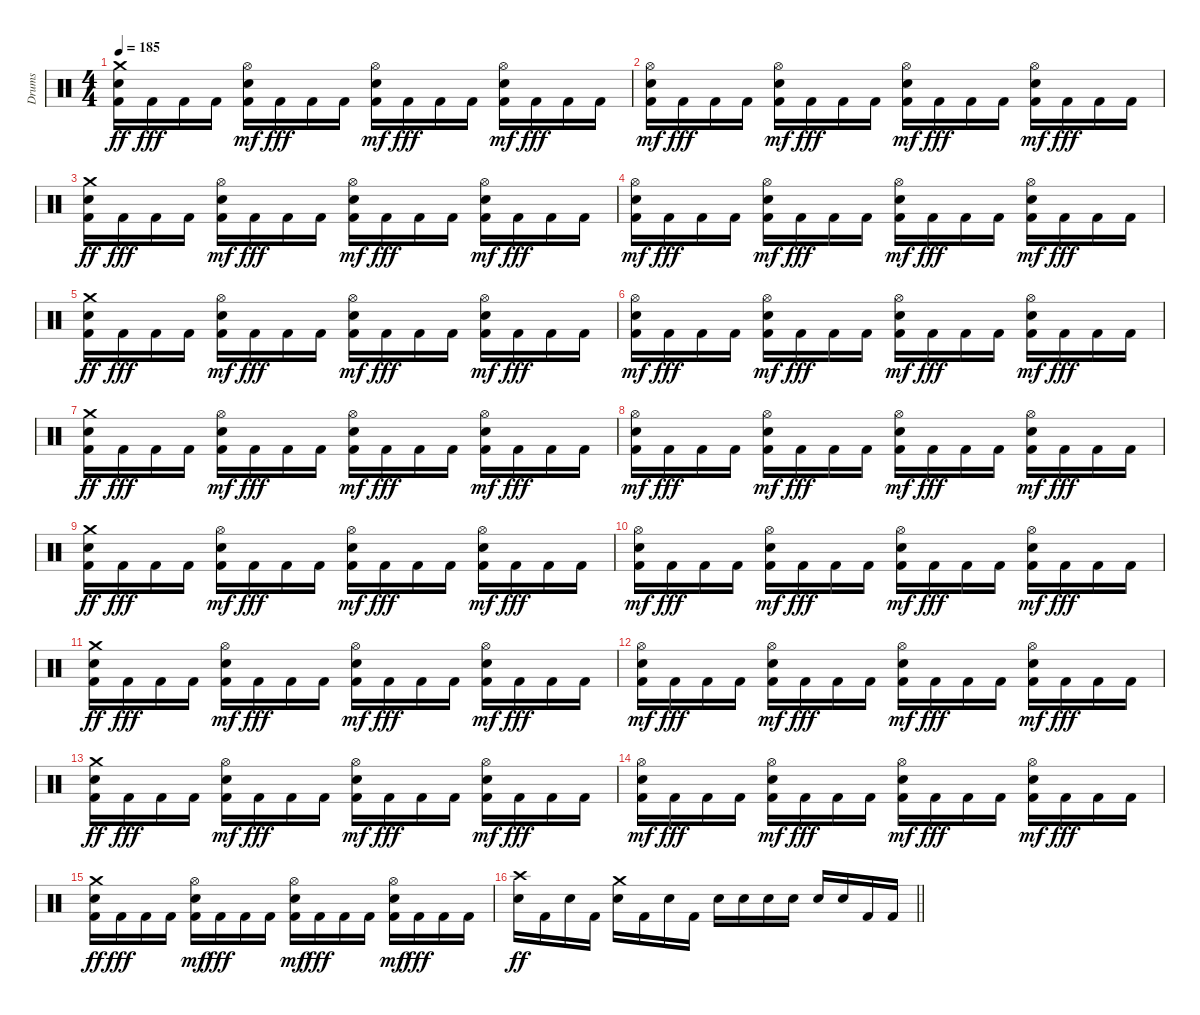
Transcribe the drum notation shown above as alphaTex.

\track ("Drums" "Drums") {instrument percussion}
\staff {score}
\articulation defaults
\ts (4 4)
\tempo 185
\clef neutral
\ks c
("Kick (hit) 2" "Snare (hit) 2" "Crash medium (hit)").16{dy ff} "Kick (hit) 2".16{dy fff} "Kick (hit) 2".16 "Kick (hit) 2".16 ("Kick (hit) 2" "Snare (hit) 2" "Hi-Hat (open)").16{dy mf} "Kick (hit) 2".16{dy fff} "Kick (hit) 2".16 "Kick (hit) 2".16 ("Kick (hit) 2" "Snare (hit) 2" "Hi-Hat (open)").16{dy mf} "Kick (hit) 2".16{dy fff} "Kick (hit) 2".16 "Kick (hit) 2".16 ("Kick (hit) 2" "Snare (hit) 2" "Hi-Hat (open)").16{dy mf} "Kick (hit) 2".16{dy fff} "Kick (hit) 2".16 "Kick (hit) 2".16 |
("Kick (hit) 2" "Snare (hit) 2" "Hi-Hat (open)").16{dy mf} "Kick (hit) 2".16{dy fff} "Kick (hit) 2".16 "Kick (hit) 2".16 ("Kick (hit) 2" "Snare (hit) 2" "Hi-Hat (open)").16{dy mf} "Kick (hit) 2".16{dy fff} "Kick (hit) 2".16 "Kick (hit) 2".16 ("Kick (hit) 2" "Snare (hit) 2" "Hi-Hat (open)").16{dy mf} "Kick (hit) 2".16{dy fff} "Kick (hit) 2".16 "Kick (hit) 2".16 ("Kick (hit) 2" "Snare (hit) 2" "Hi-Hat (open)").16{dy mf} "Kick (hit) 2".16{dy fff} "Kick (hit) 2".16 "Kick (hit) 2".16 |
("Kick (hit) 2" "Snare (hit) 2" "Crash medium (hit)").16{dy ff} "Kick (hit) 2".16{dy fff} "Kick (hit) 2".16 "Kick (hit) 2".16 ("Kick (hit) 2" "Snare (hit) 2" "Hi-Hat (open)").16{dy mf} "Kick (hit) 2".16{dy fff} "Kick (hit) 2".16 "Kick (hit) 2".16 ("Kick (hit) 2" "Snare (hit) 2" "Hi-Hat (open)").16{dy mf} "Kick (hit) 2".16{dy fff} "Kick (hit) 2".16 "Kick (hit) 2".16 ("Kick (hit) 2" "Snare (hit) 2" "Hi-Hat (open)").16{dy mf} "Kick (hit) 2".16{dy fff} "Kick (hit) 2".16 "Kick (hit) 2".16 |
("Kick (hit) 2" "Snare (hit) 2" "Hi-Hat (open)").16{dy mf} "Kick (hit) 2".16{dy fff} "Kick (hit) 2".16 "Kick (hit) 2".16 ("Kick (hit) 2" "Snare (hit) 2" "Hi-Hat (open)").16{dy mf} "Kick (hit) 2".16{dy fff} "Kick (hit) 2".16 "Kick (hit) 2".16 ("Kick (hit) 2" "Snare (hit) 2" "Hi-Hat (open)").16{dy mf} "Kick (hit) 2".16{dy fff} "Kick (hit) 2".16 "Kick (hit) 2".16 ("Kick (hit) 2" "Snare (hit) 2" "Hi-Hat (open)").16{dy mf} "Kick (hit) 2".16{dy fff} "Kick (hit) 2".16 "Kick (hit) 2".16 |
("Kick (hit) 2" "Snare (hit) 2" "Crash medium (hit)").16{dy ff} "Kick (hit) 2".16{dy fff} "Kick (hit) 2".16 "Kick (hit) 2".16 ("Kick (hit) 2" "Snare (hit) 2" "Hi-Hat (open)").16{dy mf} "Kick (hit) 2".16{dy fff} "Kick (hit) 2".16 "Kick (hit) 2".16 ("Kick (hit) 2" "Snare (hit) 2" "Hi-Hat (open)").16{dy mf} "Kick (hit) 2".16{dy fff} "Kick (hit) 2".16 "Kick (hit) 2".16 ("Kick (hit) 2" "Snare (hit) 2" "Hi-Hat (open)").16{dy mf} "Kick (hit) 2".16{dy fff} "Kick (hit) 2".16 "Kick (hit) 2".16 |
("Kick (hit) 2" "Snare (hit) 2" "Hi-Hat (open)").16{dy mf} "Kick (hit) 2".16{dy fff} "Kick (hit) 2".16 "Kick (hit) 2".16 ("Kick (hit) 2" "Snare (hit) 2" "Hi-Hat (open)").16{dy mf} "Kick (hit) 2".16{dy fff} "Kick (hit) 2".16 "Kick (hit) 2".16 ("Kick (hit) 2" "Snare (hit) 2" "Hi-Hat (open)").16{dy mf} "Kick (hit) 2".16{dy fff} "Kick (hit) 2".16 "Kick (hit) 2".16 ("Kick (hit) 2" "Snare (hit) 2" "Hi-Hat (open)").16{dy mf} "Kick (hit) 2".16{dy fff} "Kick (hit) 2".16 "Kick (hit) 2".16 |
("Kick (hit) 2" "Snare (hit) 2" "Crash medium (hit)").16{dy ff} "Kick (hit) 2".16{dy fff} "Kick (hit) 2".16 "Kick (hit) 2".16 ("Kick (hit) 2" "Snare (hit) 2" "Hi-Hat (open)").16{dy mf} "Kick (hit) 2".16{dy fff} "Kick (hit) 2".16 "Kick (hit) 2".16 ("Kick (hit) 2" "Snare (hit) 2" "Hi-Hat (open)").16{dy mf} "Kick (hit) 2".16{dy fff} "Kick (hit) 2".16 "Kick (hit) 2".16 ("Kick (hit) 2" "Snare (hit) 2" "Hi-Hat (open)").16{dy mf} "Kick (hit) 2".16{dy fff} "Kick (hit) 2".16 "Kick (hit) 2".16 |
("Kick (hit) 2" "Snare (hit) 2" "Hi-Hat (open)").16{dy mf} "Kick (hit) 2".16{dy fff} "Kick (hit) 2".16 "Kick (hit) 2".16 ("Kick (hit) 2" "Snare (hit) 2" "Hi-Hat (open)").16{dy mf} "Kick (hit) 2".16{dy fff} "Kick (hit) 2".16 "Kick (hit) 2".16 ("Kick (hit) 2" "Snare (hit) 2" "Hi-Hat (open)").16{dy mf} "Kick (hit) 2".16{dy fff} "Kick (hit) 2".16 "Kick (hit) 2".16 ("Kick (hit) 2" "Snare (hit) 2" "Hi-Hat (open)").16{dy mf} "Kick (hit) 2".16{dy fff} "Kick (hit) 2".16 "Kick (hit) 2".16 |
("Kick (hit) 2" "Snare (hit) 2" "Crash medium (hit)").16{dy ff} "Kick (hit) 2".16{dy fff} "Kick (hit) 2".16 "Kick (hit) 2".16 ("Kick (hit) 2" "Snare (hit) 2" "Hi-Hat (open)").16{dy mf} "Kick (hit) 2".16{dy fff} "Kick (hit) 2".16 "Kick (hit) 2".16 ("Kick (hit) 2" "Snare (hit) 2" "Hi-Hat (open)").16{dy mf} "Kick (hit) 2".16{dy fff} "Kick (hit) 2".16 "Kick (hit) 2".16 ("Kick (hit) 2" "Snare (hit) 2" "Hi-Hat (open)").16{dy mf} "Kick (hit) 2".16{dy fff} "Kick (hit) 2".16 "Kick (hit) 2".16 |
("Kick (hit) 2" "Snare (hit) 2" "Hi-Hat (open)").16{dy mf} "Kick (hit) 2".16{dy fff} "Kick (hit) 2".16 "Kick (hit) 2".16 ("Kick (hit) 2" "Snare (hit) 2" "Hi-Hat (open)").16{dy mf} "Kick (hit) 2".16{dy fff} "Kick (hit) 2".16 "Kick (hit) 2".16 ("Kick (hit) 2" "Snare (hit) 2" "Hi-Hat (open)").16{dy mf} "Kick (hit) 2".16{dy fff} "Kick (hit) 2".16 "Kick (hit) 2".16 ("Kick (hit) 2" "Snare (hit) 2" "Hi-Hat (open)").16{dy mf} "Kick (hit) 2".16{dy fff} "Kick (hit) 2".16 "Kick (hit) 2".16 |
("Kick (hit) 2" "Snare (hit) 2" "Crash medium (hit)").16{dy ff} "Kick (hit) 2".16{dy fff} "Kick (hit) 2".16 "Kick (hit) 2".16 ("Kick (hit) 2" "Snare (hit) 2" "Hi-Hat (open)").16{dy mf} "Kick (hit) 2".16{dy fff} "Kick (hit) 2".16 "Kick (hit) 2".16 ("Kick (hit) 2" "Snare (hit) 2" "Hi-Hat (open)").16{dy mf} "Kick (hit) 2".16{dy fff} "Kick (hit) 2".16 "Kick (hit) 2".16 ("Kick (hit) 2" "Snare (hit) 2" "Hi-Hat (open)").16{dy mf} "Kick (hit) 2".16{dy fff} "Kick (hit) 2".16 "Kick (hit) 2".16 |
("Kick (hit) 2" "Snare (hit) 2" "Hi-Hat (open)").16{dy mf} "Kick (hit) 2".16{dy fff} "Kick (hit) 2".16 "Kick (hit) 2".16 ("Kick (hit) 2" "Snare (hit) 2" "Hi-Hat (open)").16{dy mf} "Kick (hit) 2".16{dy fff} "Kick (hit) 2".16 "Kick (hit) 2".16 ("Kick (hit) 2" "Snare (hit) 2" "Hi-Hat (open)").16{dy mf} "Kick (hit) 2".16{dy fff} "Kick (hit) 2".16 "Kick (hit) 2".16 ("Kick (hit) 2" "Snare (hit) 2" "Hi-Hat (open)").16{dy mf} "Kick (hit) 2".16{dy fff} "Kick (hit) 2".16 "Kick (hit) 2".16 |
("Kick (hit) 2" "Snare (hit) 2" "Crash medium (hit)").16{dy ff} "Kick (hit) 2".16{dy fff} "Kick (hit) 2".16 "Kick (hit) 2".16 ("Kick (hit) 2" "Snare (hit) 2" "Hi-Hat (open)").16{dy mf} "Kick (hit) 2".16{dy fff} "Kick (hit) 2".16 "Kick (hit) 2".16 ("Kick (hit) 2" "Snare (hit) 2" "Hi-Hat (open)").16{dy mf} "Kick (hit) 2".16{dy fff} "Kick (hit) 2".16 "Kick (hit) 2".16 ("Kick (hit) 2" "Snare (hit) 2" "Hi-Hat (open)").16{dy mf} "Kick (hit) 2".16{dy fff} "Kick (hit) 2".16 "Kick (hit) 2".16 |
("Kick (hit) 2" "Snare (hit) 2" "Hi-Hat (open)").16{dy mf} "Kick (hit) 2".16{dy fff} "Kick (hit) 2".16 "Kick (hit) 2".16 ("Kick (hit) 2" "Snare (hit) 2" "Hi-Hat (open)").16{dy mf} "Kick (hit) 2".16{dy fff} "Kick (hit) 2".16 "Kick (hit) 2".16 ("Kick (hit) 2" "Snare (hit) 2" "Hi-Hat (open)").16{dy mf} "Kick (hit) 2".16{dy fff} "Kick (hit) 2".16 "Kick (hit) 2".16 ("Kick (hit) 2" "Snare (hit) 2" "Hi-Hat (open)").16{dy mf} "Kick (hit) 2".16{dy fff} "Kick (hit) 2".16 "Kick (hit) 2".16 |
("Kick (hit) 2" "Snare (hit) 2" "Crash medium (hit)").16{dy ff} "Kick (hit) 2".16{dy fff} "Kick (hit) 2".16 "Kick (hit) 2".16 ("Kick (hit) 2" "Snare (hit) 2" "Hi-Hat (open)").16{dy mf} "Kick (hit) 2".16{dy fff} "Kick (hit) 2".16 "Kick (hit) 2".16 ("Kick (hit) 2" "Snare (hit) 2" "Hi-Hat (open)").16{dy mf} "Kick (hit) 2".16{dy fff} "Kick (hit) 2".16 "Kick (hit) 2".16 ("Kick (hit) 2" "Snare (hit) 2" "Hi-Hat (open)").16{dy mf} "Kick (hit) 2".16{dy fff} "Kick (hit) 2".16 "Kick (hit) 2".16 |
\barLineRight lightlight
("Snare (hit) 2" "Crash high (hit)").16{dy ff} "Kick (hit) 2".16 "Snare (hit) 2".16 "Kick (hit) 2".16 ("Snare (hit) 2" "Crash medium (hit)").16 "Kick (hit) 2".16 "Snare (hit) 2".16 "Kick (hit) 2".16 "Snare (hit) 2".16 "Snare (hit) 2".16 "Snare (hit) 2".16 "Snare (hit) 2".16 "Snare (hit) 2".16 "Snare (hit) 2".16 "Kick (hit) 2".16 "Kick (hit) 2".16
